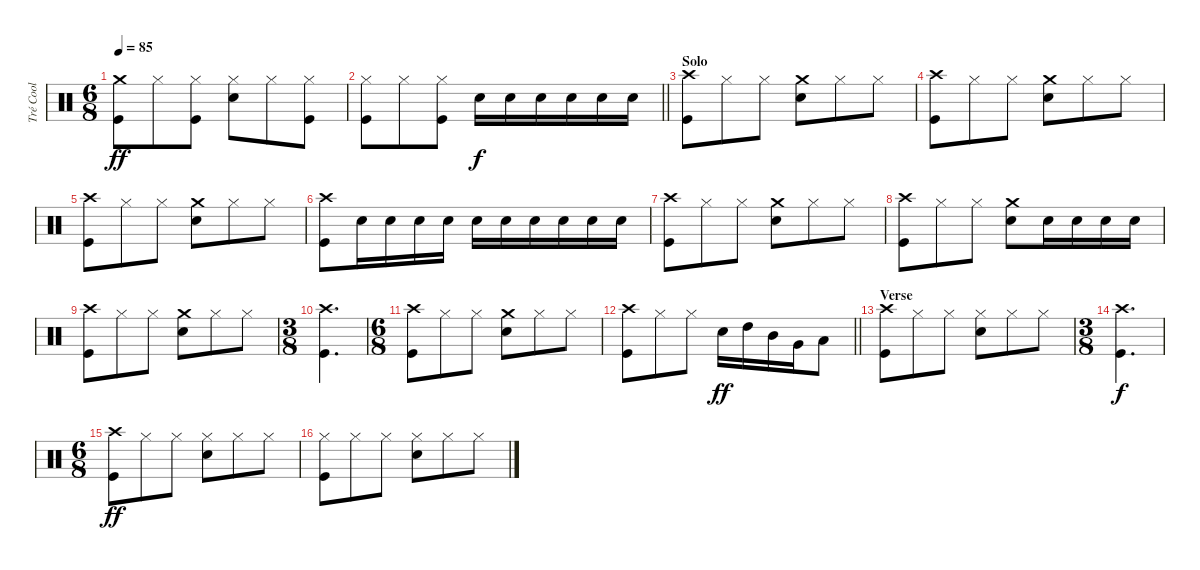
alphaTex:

\track ("Tré Cool" "Tré Cool") {instrument percussion}
\staff {score}
\articulation defaults
\ts (6 8)
\tempo 85
\clef neutral
\ks c
("Crash medium (hit)" "Kick (hit)").8{dy ff} "Hi-Hat (closed)".8 ("Hi-Hat (closed)" "Kick (hit)").8 ("Hi-Hat (closed)" "Snare (hit) 2").8 "Hi-Hat (closed)".8 ("Hi-Hat (closed)" "Kick (hit)").8 |
\barLineRight lightlight
("Hi-Hat (closed)" "Kick (hit)").8 "Hi-Hat (closed)".8 ("Hi-Hat (closed)" "Kick (hit)").8 "Snare (hit) 2".16{dy f} "Snare (hit) 2".16 "Snare (hit) 2".16 "Snare (hit) 2".16 "Snare (hit) 2".16 "Snare (hit) 2".16 |
\section ("" "Solo")
("Crash high (hit)" "Kick (hit)").8 "Hi-Hat (closed)".8 "Hi-Hat (closed)".8 ("Crash medium (hit)" "Snare (hit) 2").8 "Hi-Hat (closed)".8 "Hi-Hat (closed)".8 |
("Crash high (hit)" "Kick (hit)").8 "Hi-Hat (closed)".8 "Hi-Hat (closed)".8 ("Crash medium (hit)" "Snare (hit) 2").8 "Hi-Hat (closed)".8 "Hi-Hat (closed)".8 |
("Crash high (hit)" "Kick (hit)").8 "Hi-Hat (closed)".8 "Hi-Hat (closed)".8 ("Crash medium (hit)" "Snare (hit) 2").8 "Hi-Hat (closed)".8 "Hi-Hat (closed)".8 |
("Crash high (hit)" "Kick (hit)").8 "Snare (hit) 2".16 "Snare (hit) 2".16 "Snare (hit) 2".16 "Snare (hit) 2".16 "Snare (hit) 2".16 "Snare (hit) 2".16 "Snare (hit) 2".16 "Snare (hit) 2".16 "Snare (hit) 2".16 "Snare (hit) 2".16 |
("Crash high (hit)" "Kick (hit)").8 "Hi-Hat (closed)".8 "Hi-Hat (closed)".8 ("Crash medium (hit)" "Snare (hit) 2").8 "Hi-Hat (closed)".8 "Hi-Hat (closed)".8 |
("Crash high (hit)" "Kick (hit)").8 "Hi-Hat (closed)".8 "Hi-Hat (closed)".8 ("Crash medium (hit)" "Snare (hit) 2").8 "Snare (hit) 2".16 "Snare (hit) 2".16 "Snare (hit) 2".16 "Snare (hit) 2".16 |
("Crash high (hit)" "Kick (hit)").8 "Hi-Hat (closed)".8 "Hi-Hat (closed)".8 ("Crash medium (hit)" "Snare (hit) 2").8 "Hi-Hat (closed)".8 "Hi-Hat (closed)".8 |
\ts (3 8)
("Crash high (hit)" "Kick (hit)").4{d} |
\ts (6 8)
("Crash high (hit)" "Kick (hit)").8 "Hi-Hat (closed)".8 "Hi-Hat (closed)".8 ("Crash medium (hit)" "Snare (hit) 2").8 "Hi-Hat (closed)".8 "Hi-Hat (closed)".8 |
\barLineRight lightlight
("Crash high (hit)" "Kick (hit)").8 "Hi-Hat (closed)".8 "Hi-Hat (closed)".8 "Snare (hit) 2".16{dy ff} "High Tom (hit)".16 "Mid Tom (hit)".16 "Very Low Tom (hit)".16 "Low Floor Tom (hit)".8 |
\section ("" "Verse ")
("Crash high (hit)" "Kick (hit)").8 "Hi-Hat (closed)".8 "Hi-Hat (closed)".8 ("Hi-Hat (closed)" "Snare (hit) 2").8 "Hi-Hat (closed)".8 "Hi-Hat (closed)".8 |
\ts (3 8)
("Crash high (hit)" "Kick (hit)").4{d dy f} |
\ts (6 8)
("Crash high (hit)" "Kick (hit)").8{dy ff} "Hi-Hat (closed)".8 "Hi-Hat (closed)".8 ("Hi-Hat (closed)" "Snare (hit) 2").8 "Hi-Hat (closed)".8 "Hi-Hat (closed)".8 |
("Hi-Hat (closed)" "Kick (hit)").8 "Hi-Hat (closed)".8 "Hi-Hat (closed)".8 ("Hi-Hat (closed)" "Snare (hit) 2").8 "Hi-Hat (closed)".8 "Hi-Hat (closed)".8
